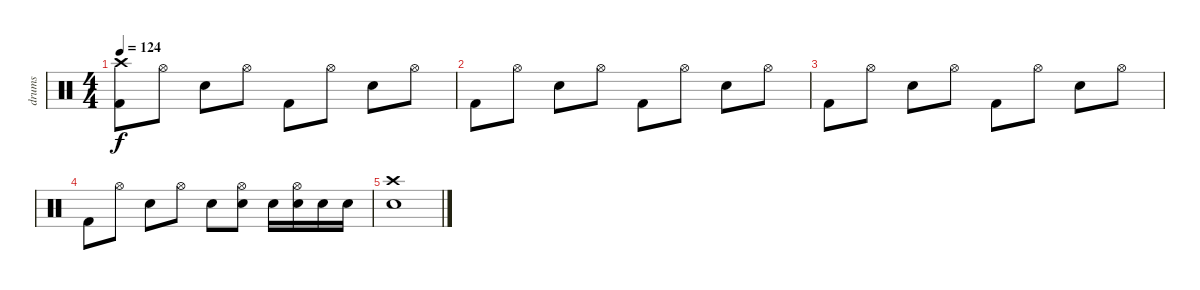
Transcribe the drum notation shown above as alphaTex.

\track ("drums" "drums") {instrument percussion}
\staff {score}
\articulation defaults
\ts (4 4)
\tempo 124
\clef neutral
\ks c
("Kick (hit) 2" "Crash high (hit)").8{dy f} "Hi-Hat (open)".8 "Electric Snare (hit)".8 "Hi-Hat (open)".8 "Kick (hit) 2".8 "Hi-Hat (open)".8 "Electric Snare (hit)".8 "Hi-Hat (open)".8 |
"Kick (hit) 2".8 "Hi-Hat (open)".8 "Electric Snare (hit)".8 "Hi-Hat (open)".8 "Kick (hit) 2".8 "Hi-Hat (open)".8 "Electric Snare (hit)".8 "Hi-Hat (open)".8 |
"Kick (hit) 2".8 "Hi-Hat (open)".8 "Electric Snare (hit)".8 "Hi-Hat (open)".8 "Kick (hit) 2".8 "Hi-Hat (open)".8 "Electric Snare (hit)".8 "Hi-Hat (open)".8 |
"Kick (hit) 2".8 "Hi-Hat (open)".8 "Electric Snare (hit)".8 "Hi-Hat (open)".8 "Electric Snare (hit)".8 ("Electric Snare (hit)" "Hi-Hat (open)").8 "Electric Snare (hit)".16 ("Electric Snare (hit)" "Hi-Hat (open)").16 "Electric Snare (hit)".16 "Electric Snare (hit)".16 |
("Electric Snare (hit)" "Crash high (hit)").1
